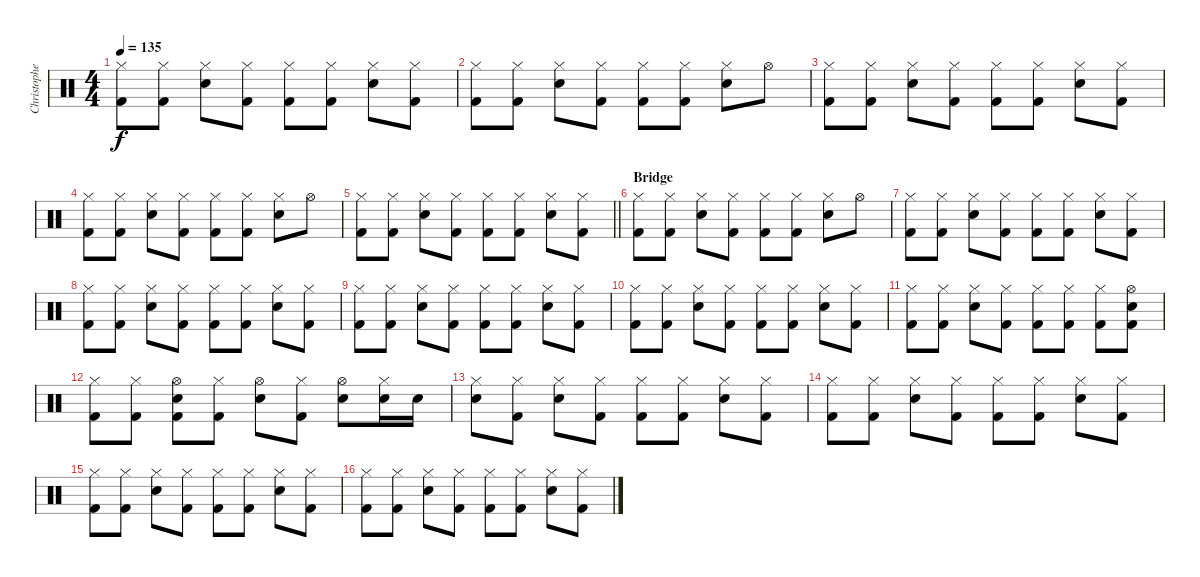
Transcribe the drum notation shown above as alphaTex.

\track ("Christopher - Drums" "Christophe") {instrument percussion}
\staff {score}
\articulation defaults
\ts (4 4)
\tempo 135
\clef neutral
\ks c
("Hi-Hat (closed)" "Kick (hit) 2").8{dy f} ("Hi-Hat (closed)" "Kick (hit) 2").8 ("Hi-Hat (closed)" "Snare (hit) 2").8 ("Hi-Hat (closed)" "Kick (hit) 2").8 ("Hi-Hat (closed)" "Kick (hit) 2").8 ("Hi-Hat (closed)" "Kick (hit) 2").8 ("Hi-Hat (closed)" "Snare (hit) 2").8 ("Hi-Hat (closed)" "Kick (hit) 2").8 |
("Hi-Hat (closed)" "Kick (hit) 2").8 ("Hi-Hat (closed)" "Kick (hit) 2").8 ("Hi-Hat (closed)" "Snare (hit) 2").8 ("Hi-Hat (closed)" "Kick (hit) 2").8 ("Hi-Hat (closed)" "Kick (hit) 2").8 ("Hi-Hat (closed)" "Kick (hit) 2").8 ("Hi-Hat (closed)" "Snare (hit) 2").8 "Hi-Hat (open)".8 |
("Hi-Hat (closed)" "Kick (hit) 2").8 ("Hi-Hat (closed)" "Kick (hit) 2").8 ("Hi-Hat (closed)" "Snare (hit) 2").8 ("Hi-Hat (closed)" "Kick (hit) 2").8 ("Hi-Hat (closed)" "Kick (hit) 2").8 ("Hi-Hat (closed)" "Kick (hit) 2").8 ("Hi-Hat (closed)" "Snare (hit) 2").8 ("Hi-Hat (closed)" "Kick (hit) 2").8 |
("Hi-Hat (closed)" "Kick (hit) 2").8 ("Hi-Hat (closed)" "Kick (hit) 2").8 ("Hi-Hat (closed)" "Snare (hit) 2").8 ("Hi-Hat (closed)" "Kick (hit) 2").8 ("Hi-Hat (closed)" "Kick (hit) 2").8 ("Hi-Hat (closed)" "Kick (hit) 2").8 ("Hi-Hat (closed)" "Snare (hit) 2").8 "Hi-Hat (open)".8 |
\barLineRight lightlight
("Hi-Hat (closed)" "Kick (hit) 2").8 ("Hi-Hat (closed)" "Kick (hit) 2").8 ("Hi-Hat (closed)" "Snare (hit) 2").8 ("Hi-Hat (closed)" "Kick (hit) 2").8 ("Hi-Hat (closed)" "Kick (hit) 2").8 ("Hi-Hat (closed)" "Kick (hit) 2").8 ("Hi-Hat (closed)" "Snare (hit) 2").8 ("Hi-Hat (closed)" "Kick (hit) 2").8 |
\section ("" "Bridge")
("Hi-Hat (closed)" "Kick (hit) 2").8 ("Hi-Hat (closed)" "Kick (hit) 2").8 ("Hi-Hat (closed)" "Snare (hit) 2").8 ("Hi-Hat (closed)" "Kick (hit) 2").8 ("Hi-Hat (closed)" "Kick (hit) 2").8 ("Hi-Hat (closed)" "Kick (hit) 2").8 ("Hi-Hat (closed)" "Snare (hit) 2").8 "Hi-Hat (open)".8 |
("Hi-Hat (closed)" "Kick (hit) 2").8 ("Hi-Hat (closed)" "Kick (hit) 2").8 ("Hi-Hat (closed)" "Snare (hit) 2").8 ("Hi-Hat (closed)" "Kick (hit) 2").8 ("Hi-Hat (closed)" "Kick (hit) 2").8 ("Hi-Hat (closed)" "Kick (hit) 2").8 ("Hi-Hat (closed)" "Snare (hit) 2").8 ("Hi-Hat (closed)" "Kick (hit) 2").8 |
("Hi-Hat (closed)" "Kick (hit) 2").8 ("Hi-Hat (closed)" "Kick (hit) 2").8 ("Hi-Hat (closed)" "Snare (hit) 2").8 ("Hi-Hat (closed)" "Kick (hit) 2").8 ("Hi-Hat (closed)" "Kick (hit) 2").8 ("Hi-Hat (closed)" "Kick (hit) 2").8 ("Hi-Hat (closed)" "Snare (hit) 2").8 ("Hi-Hat (closed)" "Kick (hit) 2").8 |
("Hi-Hat (closed)" "Kick (hit) 2").8 ("Hi-Hat (closed)" "Kick (hit) 2").8 ("Hi-Hat (closed)" "Snare (hit) 2").8 ("Hi-Hat (closed)" "Kick (hit) 2").8 ("Hi-Hat (closed)" "Kick (hit) 2").8 ("Hi-Hat (closed)" "Kick (hit) 2").8 ("Hi-Hat (closed)" "Snare (hit) 2").8 ("Hi-Hat (closed)" "Kick (hit) 2").8 |
("Hi-Hat (closed)" "Kick (hit) 2").8 ("Hi-Hat (closed)" "Kick (hit) 2").8 ("Hi-Hat (closed)" "Snare (hit) 2").8 ("Hi-Hat (closed)" "Kick (hit) 2").8 ("Hi-Hat (closed)" "Kick (hit) 2").8 ("Hi-Hat (closed)" "Kick (hit) 2").8 ("Hi-Hat (closed)" "Snare (hit) 2").8 ("Hi-Hat (closed)" "Kick (hit) 2").8 |
("Hi-Hat (closed)" "Kick (hit) 2").8 ("Hi-Hat (closed)" "Kick (hit) 2").8 ("Hi-Hat (closed)" "Snare (hit) 2").8 ("Hi-Hat (closed)" "Kick (hit) 2").8 ("Hi-Hat (closed)" "Kick (hit) 2").8 ("Hi-Hat (closed)" "Kick (hit) 2").8 ("Hi-Hat (closed)" "Kick (hit) 2").8 ("Hi-Hat (open)" "Snare (hit) 2" "Kick (hit) 2").8 |
("Hi-Hat (closed)" "Kick (hit) 2").8 ("Hi-Hat (closed)" "Kick (hit) 2").8 ("Hi-Hat (open)" "Snare (hit) 2" "Kick (hit) 2").8 ("Hi-Hat (closed)" "Kick (hit) 2").8 ("Hi-Hat (open)" "Snare (hit) 2").8 ("Hi-Hat (closed)" "Kick (hit) 2").8 ("Hi-Hat (open)" "Snare (hit) 2").8 ("Hi-Hat (closed)" "Snare (hit) 2").16 "Snare (hit) 2".16 |
("Hi-Hat (closed)" "Snare (hit) 2").8 ("Hi-Hat (closed)" "Kick (hit) 2").8 ("Hi-Hat (closed)" "Snare (hit) 2").8 ("Hi-Hat (closed)" "Kick (hit) 2").8 ("Hi-Hat (closed)" "Kick (hit) 2").8 ("Hi-Hat (closed)" "Kick (hit) 2").8 ("Hi-Hat (closed)" "Snare (hit) 2").8 ("Hi-Hat (closed)" "Kick (hit) 2").8 |
("Hi-Hat (closed)" "Kick (hit) 2").8 ("Hi-Hat (closed)" "Kick (hit) 2").8 ("Hi-Hat (closed)" "Snare (hit) 2").8 ("Hi-Hat (closed)" "Kick (hit) 2").8 ("Hi-Hat (closed)" "Kick (hit) 2").8 ("Hi-Hat (closed)" "Kick (hit) 2").8 ("Hi-Hat (closed)" "Snare (hit) 2").8 ("Hi-Hat (closed)" "Kick (hit) 2").8 |
("Hi-Hat (closed)" "Kick (hit) 2").8 ("Hi-Hat (closed)" "Kick (hit) 2").8 ("Hi-Hat (closed)" "Snare (hit) 2").8 ("Hi-Hat (closed)" "Kick (hit) 2").8 ("Hi-Hat (closed)" "Kick (hit) 2").8 ("Hi-Hat (closed)" "Kick (hit) 2").8 ("Hi-Hat (closed)" "Snare (hit) 2").8 ("Hi-Hat (closed)" "Kick (hit) 2").8 |
("Hi-Hat (closed)" "Kick (hit) 2").8 ("Hi-Hat (closed)" "Kick (hit) 2").8 ("Hi-Hat (closed)" "Snare (hit) 2").8 ("Hi-Hat (closed)" "Kick (hit) 2").8 ("Hi-Hat (closed)" "Kick (hit) 2").8 ("Hi-Hat (closed)" "Kick (hit) 2").8 ("Hi-Hat (closed)" "Snare (hit) 2").8 ("Hi-Hat (closed)" "Kick (hit) 2").8
